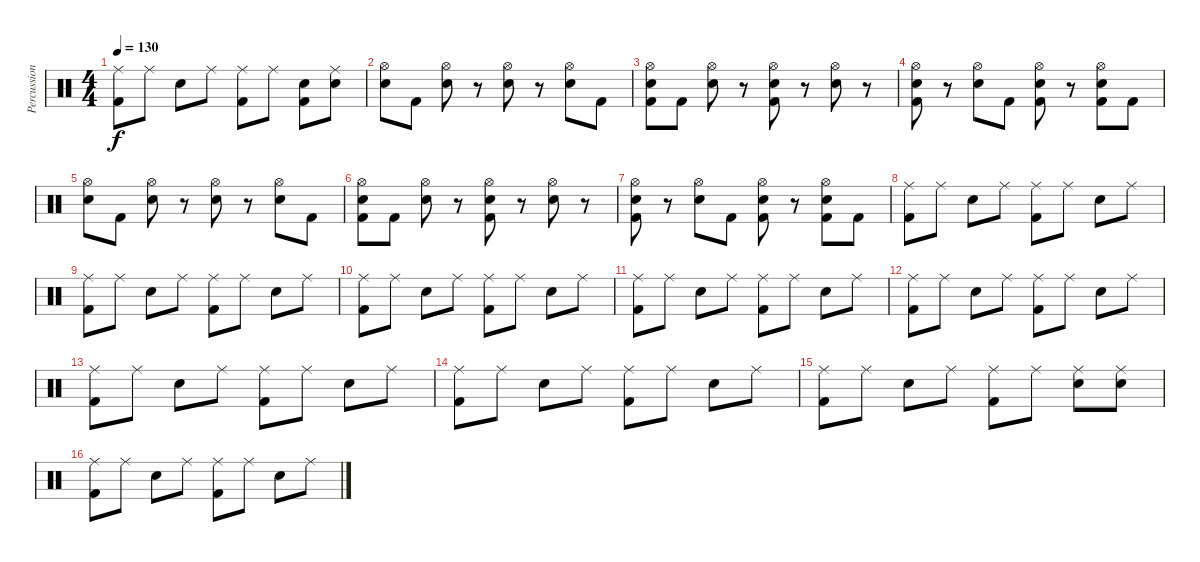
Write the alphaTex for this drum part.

\track ("Percussion" "Percussion") {instrument percussion}
\staff {score}
\articulation defaults
\ts (4 4)
\tempo 130
\clef neutral
\ks c
("Ride (middle)" "Kick (hit) 2").8{dy f} "Ride (middle)".8 "Snare (hit) 2".8 "Ride (middle)".8 ("Ride (middle)" "Kick (hit) 2").8 "Ride (middle)".8 ("Snare (hit) 2" "Kick (hit) 2").8 ("Ride (middle)" "Snare (hit) 2").8 |
("Hi-Hat (open)" "Snare (hit) 2").8 "Kick (hit) 2".8 ("Hi-Hat (open)" "Snare (hit) 2").8 r.8 ("Hi-Hat (open)" "Snare (hit) 2").8 r.8 ("Hi-Hat (open)" "Snare (hit) 2").8 "Kick (hit) 2".8 |
("Hi-Hat (open)" "Snare (hit) 2" "Kick (hit) 2").8 "Kick (hit) 2".8 ("Hi-Hat (open)" "Snare (hit) 2").8 r.8 ("Hi-Hat (open)" "Snare (hit) 2" "Kick (hit) 2").8 r.8 ("Hi-Hat (open)" "Snare (hit) 2").8 r.8 |
("Hi-Hat (open)" "Snare (hit) 2" "Kick (hit) 2").8 r.8 ("Hi-Hat (open)" "Snare (hit) 2").8 "Kick (hit) 2".8 ("Hi-Hat (open)" "Snare (hit) 2" "Kick (hit) 2").8 r.8 ("Hi-Hat (open)" "Snare (hit) 2" "Kick (hit) 2").8 "Kick (hit) 2".8 |
("Hi-Hat (open)" "Snare (hit) 2").8 "Kick (hit) 2".8 ("Hi-Hat (open)" "Snare (hit) 2").8 r.8 ("Hi-Hat (open)" "Snare (hit) 2").8 r.8 ("Hi-Hat (open)" "Snare (hit) 2").8 "Kick (hit) 2".8 |
("Hi-Hat (open)" "Snare (hit) 2" "Kick (hit) 2").8 "Kick (hit) 2".8 ("Hi-Hat (open)" "Snare (hit) 2").8 r.8 ("Hi-Hat (open)" "Snare (hit) 2" "Kick (hit) 2").8 r.8 ("Hi-Hat (open)" "Snare (hit) 2").8 r.8 |
("Hi-Hat (open)" "Snare (hit) 2" "Kick (hit) 2").8 r.8 ("Hi-Hat (open)" "Snare (hit) 2").8 "Kick (hit) 2".8 ("Hi-Hat (open)" "Snare (hit) 2" "Kick (hit) 2").8 r.8 ("Hi-Hat (open)" "Snare (hit) 2" "Kick (hit) 2").8 "Kick (hit) 2".8 |
("Ride (middle)" "Kick (hit) 2").8 "Ride (middle)".8 "Snare (hit) 2".8 "Ride (middle)".8 ("Ride (middle)" "Kick (hit) 2").8 "Ride (middle)".8 "Snare (hit) 2".8 "Ride (middle)".8 |
("Ride (middle)" "Kick (hit) 2").8 "Ride (middle)".8 "Snare (hit) 2".8 "Ride (middle)".8 ("Ride (middle)" "Kick (hit) 2").8 "Ride (middle)".8 "Snare (hit) 2".8 "Ride (middle)".8 |
("Ride (middle)" "Kick (hit) 2").8 "Ride (middle)".8 "Snare (hit) 2".8 "Ride (middle)".8 ("Ride (middle)" "Kick (hit) 2").8 "Ride (middle)".8 "Snare (hit) 2".8 "Ride (middle)".8 |
("Ride (middle)" "Kick (hit) 2").8 "Ride (middle)".8 "Snare (hit) 2".8 "Ride (middle)".8 ("Ride (middle)" "Kick (hit) 2").8 "Ride (middle)".8 "Snare (hit) 2".8 "Ride (middle)".8 |
("Ride (middle)" "Kick (hit) 2").8 "Ride (middle)".8 "Snare (hit) 2".8 "Ride (middle)".8 ("Ride (middle)" "Kick (hit) 2").8 "Ride (middle)".8 "Snare (hit) 2".8 "Ride (middle)".8 |
("Ride (middle)" "Kick (hit) 2").8 "Ride (middle)".8 "Snare (hit) 2".8 "Ride (middle)".8 ("Ride (middle)" "Kick (hit) 2").8 "Ride (middle)".8 "Snare (hit) 2".8 "Ride (middle)".8 |
("Ride (middle)" "Kick (hit) 2").8 "Ride (middle)".8 "Snare (hit) 2".8 "Ride (middle)".8 ("Ride (middle)" "Kick (hit) 2").8 "Ride (middle)".8 "Snare (hit) 2".8 "Ride (middle)".8 |
("Ride (middle)" "Kick (hit) 2").8 "Ride (middle)".8 "Snare (hit) 2".8 "Ride (middle)".8 ("Ride (middle)" "Kick (hit) 2").8 "Ride (middle)".8 ("Ride (middle)" "Snare (hit) 2").8 ("Ride (middle)" "Snare (hit) 2").8 |
("Ride (middle)" "Kick (hit) 2").8 "Ride (middle)".8 "Snare (hit) 2".8 "Ride (middle)".8 ("Ride (middle)" "Kick (hit) 2").8 "Ride (middle)".8 "Snare (hit) 2".8 "Ride (middle)".8
